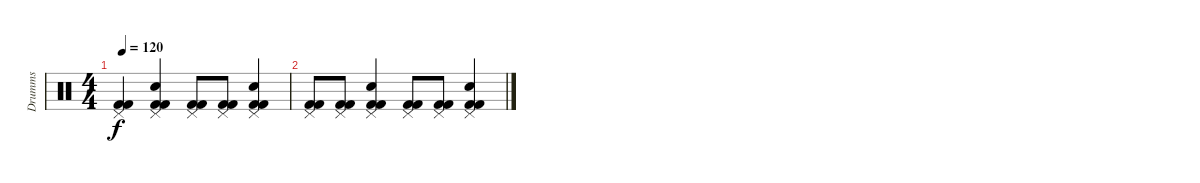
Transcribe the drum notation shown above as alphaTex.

\track ("Drumms" "Drumms") {instrument percussion}
\staff {score}
\articulation defaults
\ts (4 4)
\tempo 120
\clef neutral
\ks c
("Kick (hit) 2" "Kick (hit) 2" "Pedal Hi-Hat (hit)").4{dy f} ("Kick (hit) 2" "Kick (hit) 2" "Pedal Hi-Hat (hit)" "Electric Snare (hit)").4 ("Kick (hit) 2" "Kick (hit) 2" "Pedal Hi-Hat (hit)").8 ("Kick (hit) 2" "Kick (hit) 2" "Pedal Hi-Hat (hit)").8 ("Kick (hit) 2" "Kick (hit) 2" "Pedal Hi-Hat (hit)" "Electric Snare (hit)").4 |
("Kick (hit) 2" "Kick (hit) 2" "Pedal Hi-Hat (hit)").8 ("Kick (hit) 2" "Kick (hit) 2" "Pedal Hi-Hat (hit)").8 ("Kick (hit) 2" "Kick (hit) 2" "Pedal Hi-Hat (hit)" "Electric Snare (hit)").4 ("Kick (hit) 2" "Kick (hit) 2" "Pedal Hi-Hat (hit)").8 ("Kick (hit) 2" "Kick (hit) 2" "Pedal Hi-Hat (hit)").8 ("Kick (hit) 2" "Kick (hit) 2" "Pedal Hi-Hat (hit)" "Electric Snare (hit)").4
